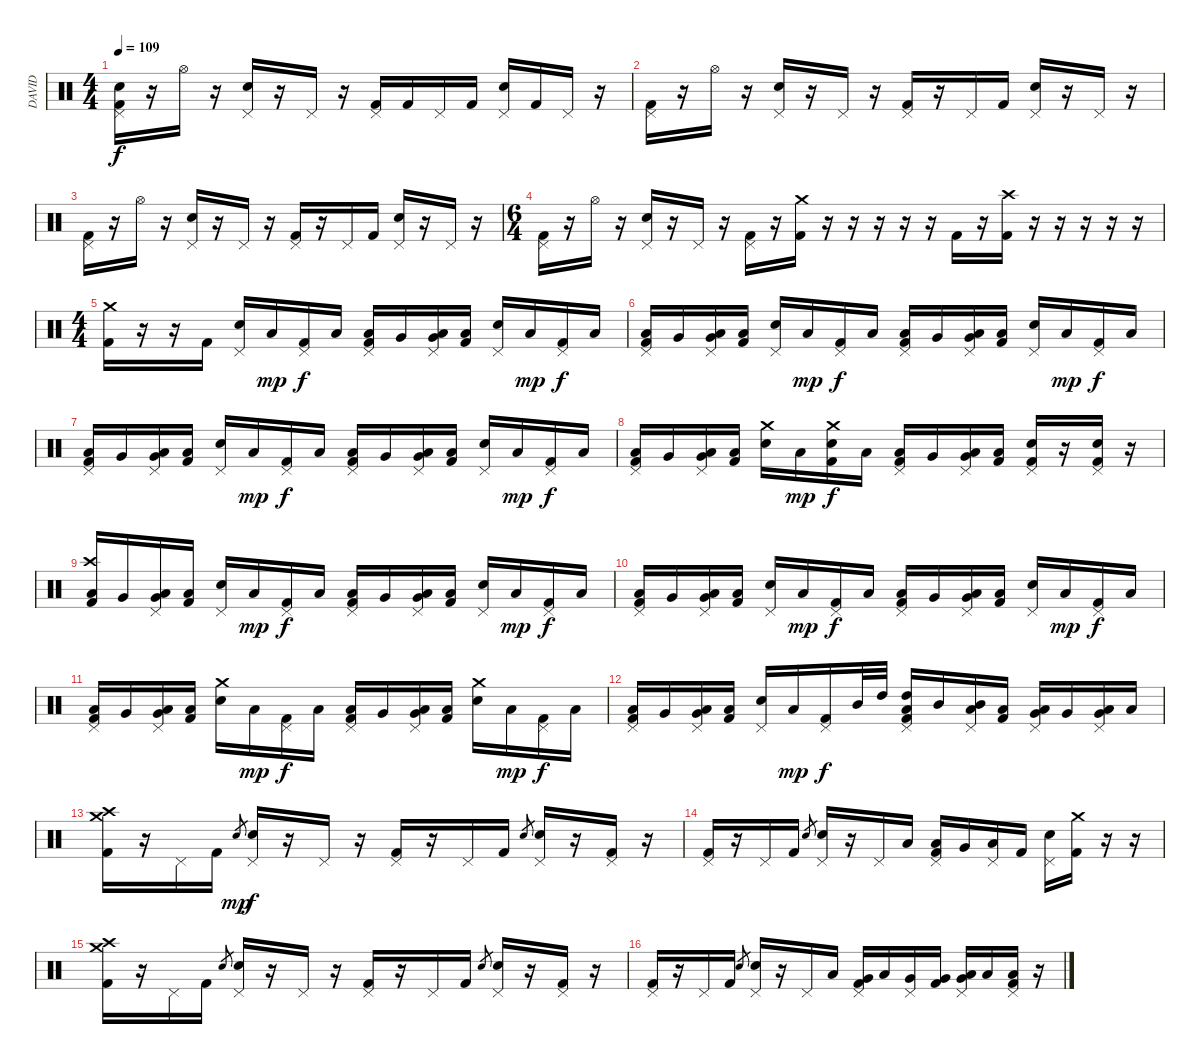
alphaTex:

\track ("DAVID" "DAVID") {instrument percussion}
\staff {score}
\articulation defaults
\ts (4 4)
\tempo 109
\clef neutral
\ks c
("Pedal Hi-Hat (hit)" "Snare (hit) 2" "Kick (hit) 2").16{dy f} r.16 "Hi-Hat (open)".16 r.16 ("Pedal Hi-Hat (hit)" "Snare (hit) 2").16 r.16 "Pedal Hi-Hat (hit)".16 r.16 ("Pedal Hi-Hat (hit)" "Kick (hit) 2").16 "Kick (hit) 2".16 "Pedal Hi-Hat (hit)".16 "Kick (hit) 2".16 ("Pedal Hi-Hat (hit)" "Snare (hit) 2").16 "Kick (hit) 2".16 "Pedal Hi-Hat (hit)".16 r.16 |
("Pedal Hi-Hat (hit)" "Kick (hit) 2").16 r.16 "Hi-Hat (open)".16 r.16 ("Pedal Hi-Hat (hit)" "Snare (hit) 2").16 r.16 "Pedal Hi-Hat (hit)".16 r.16 ("Pedal Hi-Hat (hit)" "Kick (hit) 2").16 r.16 "Pedal Hi-Hat (hit)".16 "Kick (hit) 2".16 ("Pedal Hi-Hat (hit)" "Snare (hit) 2").16 r.16 "Pedal Hi-Hat (hit)".16 r.16 |
("Pedal Hi-Hat (hit)" "Kick (hit) 2").16 r.16 "Hi-Hat (open)".16 r.16 ("Pedal Hi-Hat (hit)" "Snare (hit) 2").16 r.16 "Pedal Hi-Hat (hit)".16 r.16 ("Pedal Hi-Hat (hit)" "Kick (hit) 2").16 r.16 "Pedal Hi-Hat (hit)".16 "Kick (hit) 2".16 ("Pedal Hi-Hat (hit)" "Snare (hit) 2").16 r.16 "Pedal Hi-Hat (hit)".16 r.16 |
\ts (6 4)
("Pedal Hi-Hat (hit)" "Kick (hit) 2").16 r.16 "Hi-Hat (open)".16 r.16 ("Pedal Hi-Hat (hit)" "Snare (hit) 2").16 r.16 "Pedal Hi-Hat (hit)".16 r.16 ("Pedal Hi-Hat (hit)" "Kick (hit) 2").16 r.16 ("Crash medium (hit)" "Kick (hit) 2").16 r.16 r.16 r.16 r.16 r.16 "Kick (hit) 2".16 r.16 ("Crash high (hit)" "Kick (hit) 2").16 r.16 r.16 r.16 r.16 r.16 |
\ts (4 4)
("Crash medium (hit)" "Kick (hit) 2").16 r.16 r.16 "Kick (hit) 2".16 ("Pedal Hi-Hat (hit)" "Snare (hit) 2").16 "Low Floor Tom (hit)".16{dy mp} ("Pedal Hi-Hat (hit)" "Kick (hit) 2").16{dy f} "Low Tom (hit)".16 ("Pedal Hi-Hat (hit)" "Low Tom (hit)" "Kick (hit) 2").16 "Very Low Tom (hit)".16 ("Pedal Hi-Hat (hit)" "Very Low Tom (hit)" "Low Floor Tom (hit)").16 ("Low Floor Tom (hit)" "Kick (hit) 2").16 ("Pedal Hi-Hat (hit)" "Snare (hit) 2").16 "Low Floor Tom (hit)".16{dy mp} ("Pedal Hi-Hat (hit)" "Kick (hit) 2").16{dy f} "Low Tom (hit)".16 |
("Pedal Hi-Hat (hit)" "Low Tom (hit)" "Kick (hit) 2").16 "Very Low Tom (hit)".16 ("Pedal Hi-Hat (hit)" "Very Low Tom (hit)" "Low Floor Tom (hit)").16 ("Low Floor Tom (hit)" "Kick (hit) 2").16 ("Pedal Hi-Hat (hit)" "Snare (hit) 2").16 "Low Floor Tom (hit)".16{dy mp} ("Pedal Hi-Hat (hit)" "Kick (hit) 2").16{dy f} "Low Tom (hit)".16 ("Pedal Hi-Hat (hit)" "Low Tom (hit)" "Kick (hit) 2").16 "Very Low Tom (hit)".16 ("Pedal Hi-Hat (hit)" "Very Low Tom (hit)" "Low Floor Tom (hit)").16 ("Low Floor Tom (hit)" "Kick (hit) 2").16 ("Pedal Hi-Hat (hit)" "Snare (hit) 2").16 "Low Floor Tom (hit)".16{dy mp} ("Pedal Hi-Hat (hit)" "Kick (hit) 2").16{dy f} "Low Tom (hit)".16 |
("Pedal Hi-Hat (hit)" "Low Tom (hit)" "Kick (hit) 2").16 "Very Low Tom (hit)".16 ("Pedal Hi-Hat (hit)" "Very Low Tom (hit)" "Low Floor Tom (hit)").16 ("Low Floor Tom (hit)" "Kick (hit) 2").16 ("Pedal Hi-Hat (hit)" "Snare (hit) 2").16 "Low Floor Tom (hit)".16{dy mp} ("Pedal Hi-Hat (hit)" "Kick (hit) 2").16{dy f} "Low Tom (hit)".16 ("Pedal Hi-Hat (hit)" "Low Tom (hit)" "Kick (hit) 2").16 "Very Low Tom (hit)".16 ("Pedal Hi-Hat (hit)" "Very Low Tom (hit)" "Low Floor Tom (hit)").16 ("Low Floor Tom (hit)" "Kick (hit) 2").16 ("Pedal Hi-Hat (hit)" "Snare (hit) 2").16 "Low Floor Tom (hit)".16{dy mp} ("Pedal Hi-Hat (hit)" "Kick (hit) 2").16{dy f} "Low Tom (hit)".16 |
("Pedal Hi-Hat (hit)" "Low Tom (hit)" "Kick (hit) 2").16 "Very Low Tom (hit)".16 ("Pedal Hi-Hat (hit)" "Very Low Tom (hit)" "Low Floor Tom (hit)").16 ("Low Floor Tom (hit)" "Kick (hit) 2").16 ("Crash medium (hit)" "Snare (hit) 2").16 "Low Floor Tom (hit)".16{dy mp} ("Crash medium (hit)" "Snare (hit) 2" "Kick (hit) 2").16{dy f} "Low Tom (hit)".16 ("Pedal Hi-Hat (hit)" "Low Tom (hit)" "Kick (hit) 2").16 "Very Low Tom (hit)".16 ("Pedal Hi-Hat (hit)" "Very Low Tom (hit)" "Low Floor Tom (hit)").16 ("Low Floor Tom (hit)" "Kick (hit) 2").16 ("Pedal Hi-Hat (hit)" "Snare (hit) 2" "Kick (hit) 2").16 r.16 ("Pedal Hi-Hat (hit)" "Snare (hit) 2" "Kick (hit) 2").16 r.16 |
("Crash high (hit)" "Low Tom (hit)" "Kick (hit) 2").16 "Very Low Tom (hit)".16 ("Pedal Hi-Hat (hit)" "Very Low Tom (hit)" "Low Floor Tom (hit)").16 ("Low Floor Tom (hit)" "Kick (hit) 2").16 ("Pedal Hi-Hat (hit)" "Snare (hit) 2").16 "Low Floor Tom (hit)".16{dy mp} ("Pedal Hi-Hat (hit)" "Kick (hit) 2").16{dy f} "Low Tom (hit)".16 ("Pedal Hi-Hat (hit)" "Low Tom (hit)" "Kick (hit) 2").16 "Very Low Tom (hit)".16 ("Pedal Hi-Hat (hit)" "Very Low Tom (hit)" "Low Floor Tom (hit)").16 ("Low Floor Tom (hit)" "Kick (hit) 2").16 ("Pedal Hi-Hat (hit)" "Snare (hit) 2").16 "Low Floor Tom (hit)".16{dy mp} ("Pedal Hi-Hat (hit)" "Kick (hit) 2").16{dy f} "Low Tom (hit)".16 |
("Pedal Hi-Hat (hit)" "Low Tom (hit)" "Kick (hit) 2").16 "Very Low Tom (hit)".16 ("Pedal Hi-Hat (hit)" "Very Low Tom (hit)" "Low Floor Tom (hit)").16 ("Low Floor Tom (hit)" "Kick (hit) 2").16 ("Pedal Hi-Hat (hit)" "Snare (hit) 2").16 "Low Floor Tom (hit)".16{dy mp} ("Pedal Hi-Hat (hit)" "Kick (hit) 2").16{dy f} "Low Tom (hit)".16 ("Pedal Hi-Hat (hit)" "Low Tom (hit)" "Kick (hit) 2").16 "Very Low Tom (hit)".16 ("Pedal Hi-Hat (hit)" "Very Low Tom (hit)" "Low Floor Tom (hit)").16 ("Low Floor Tom (hit)" "Kick (hit) 2").16 ("Pedal Hi-Hat (hit)" "Snare (hit) 2").16 "Low Floor Tom (hit)".16{dy mp} ("Pedal Hi-Hat (hit)" "Kick (hit) 2").16{dy f} "Low Tom (hit)".16 |
("Pedal Hi-Hat (hit)" "Low Tom (hit)" "Kick (hit) 2").16 "Very Low Tom (hit)".16 ("Pedal Hi-Hat (hit)" "Very Low Tom (hit)" "Low Floor Tom (hit)").16 ("Low Floor Tom (hit)" "Kick (hit) 2").16 ("Crash medium (hit)" "Snare (hit) 2").16 "Low Floor Tom (hit)".16{dy mp} ("Pedal Hi-Hat (hit)" "Kick (hit) 2").16{dy f} "Low Tom (hit)".16 ("Pedal Hi-Hat (hit)" "Low Tom (hit)" "Kick (hit) 2").16 "Very Low Tom (hit)".16 ("Pedal Hi-Hat (hit)" "Very Low Tom (hit)" "Low Floor Tom (hit)").16 ("Low Floor Tom (hit)" "Kick (hit) 2").16 ("Crash medium (hit)" "Snare (hit) 2").16 "Low Floor Tom (hit)".16{dy mp} ("Pedal Hi-Hat (hit)" "Kick (hit) 2").16{dy f} "Low Tom (hit)".16 |
("Pedal Hi-Hat (hit)" "Low Tom (hit)" "Kick (hit) 2").16 "Very Low Tom (hit)".16 ("Pedal Hi-Hat (hit)" "Very Low Tom (hit)" "Low Floor Tom (hit)").16 ("Low Floor Tom (hit)" "Kick (hit) 2").16 ("Pedal Hi-Hat (hit)" "Snare (hit) 2").16 "Low Floor Tom (hit)".16{dy mp} ("Pedal Hi-Hat (hit)" "Kick (hit) 2").16{dy f} "Mid Tom (hit)".32 "High Tom (hit)".32 ("Pedal Hi-Hat (hit)" "High Tom (hit)" "Low Tom (hit)" "Kick (hit) 2").16 "Mid Tom (hit)".16 ("Pedal Hi-Hat (hit)" "Mid Tom (hit)" "Low Tom (hit)").16 ("Low Tom (hit)" "Kick (hit) 2").16 ("Pedal Hi-Hat (hit)" "Very Low Tom (hit)" "Low Tom (hit)").16 "Very Low Tom (hit)".16 ("Pedal Hi-Hat (hit)" "Very Low Tom (hit)" "Low Floor Tom (hit)").16 "Low Floor Tom (hit)".16 |
("Crash medium (hit)" "Crash high (hit)" "Kick (hit) 2").16 r.16 "Pedal Hi-Hat (hit)".16 "Kick (hit) 2".16 "Snare (hit) 2".8{gr dy mp} ("Pedal Hi-Hat (hit)" "Snare (hit) 2").16{dy f} r.16 "Pedal Hi-Hat (hit)".16 r.16 ("Pedal Hi-Hat (hit)" "Kick (hit) 2").16 r.16 "Pedal Hi-Hat (hit)".16 "Kick (hit) 2".16 "Snare (hit) 2".8{gr} ("Pedal Hi-Hat (hit)" "Snare (hit) 2").16 r.16 ("Pedal Hi-Hat (hit)" "Kick (hit) 2").16 r.16 |
("Pedal Hi-Hat (hit)" "Kick (hit) 2").16 r.16 "Pedal Hi-Hat (hit)".16 "Kick (hit) 2".16 "Snare (hit) 2".8{gr} ("Pedal Hi-Hat (hit)" "Snare (hit) 2").16 r.16 "Pedal Hi-Hat (hit)".16 "Low Tom (hit)".16 ("Pedal Hi-Hat (hit)" "Low Tom (hit)" "Kick (hit) 2").16 "Very Low Tom (hit)".16 ("Pedal Hi-Hat (hit)" "Low Floor Tom (hit)").16 "Kick (hit) 2".16 ("Pedal Hi-Hat (hit)" "Snare (hit) 2").16 ("Crash medium (hit)" "Kick (hit) 2").16 r.16 r.16 |
("Crash medium (hit)" "Crash high (hit)" "Kick (hit) 2").16 r.16 "Pedal Hi-Hat (hit)".16 "Kick (hit) 2".16 "Snare (hit) 2".8{gr} ("Pedal Hi-Hat (hit)" "Snare (hit) 2").16 r.16 "Pedal Hi-Hat (hit)".16 r.16 ("Pedal Hi-Hat (hit)" "Kick (hit) 2").16 r.16 "Pedal Hi-Hat (hit)".16 "Kick (hit) 2".16 "Snare (hit) 2".8{gr} ("Pedal Hi-Hat (hit)" "Snare (hit) 2").16 r.16 ("Pedal Hi-Hat (hit)" "Kick (hit) 2").16 r.16 |
("Pedal Hi-Hat (hit)" "Kick (hit) 2").16 r.16 "Pedal Hi-Hat (hit)".16 "Kick (hit) 2".16 "Snare (hit) 2".8{gr} ("Pedal Hi-Hat (hit)" "Snare (hit) 2").16 r.16 "Pedal Hi-Hat (hit)".16 "Low Tom (hit)".16 ("Pedal Hi-Hat (hit)" "Very Low Tom (hit)" "Kick (hit) 2").16 "Low Tom (hit)".16 ("Pedal Hi-Hat (hit)" "Very Low Tom (hit)").16 ("Very Low Tom (hit)" "Kick (hit) 2").16 ("Pedal Hi-Hat (hit)" "Very Low Tom (hit)" "Low Floor Tom (hit)").16 "Low Floor Tom (hit)".16 ("Pedal Hi-Hat (hit)" "Low Floor Tom (hit)" "Kick (hit) 2").16 r.16
